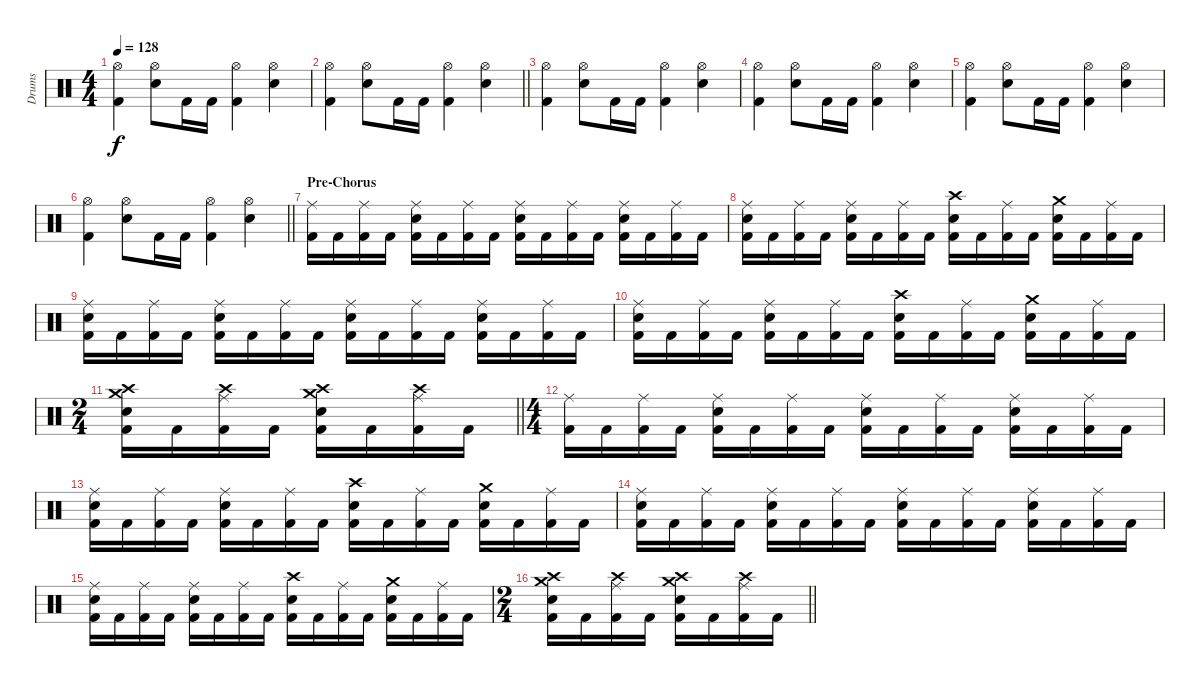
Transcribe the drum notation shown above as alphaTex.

\track ("Drums" "Drums") {instrument percussion}
\staff {score}
\articulation defaults
\ts (4 4)
\tempo 128
\clef neutral
\ks c
("Hi-Hat (open)" "Kick (hit) 2").4{dy f} ("Hi-Hat (open)" "Snare (hit) 2").8 "Kick (hit) 2".16 "Kick (hit) 2".16 ("Hi-Hat (open)" "Kick (hit) 2").4 ("Hi-Hat (open)" "Snare (hit) 2").4 |
\barLineRight lightlight
("Hi-Hat (open)" "Kick (hit) 2").4 ("Hi-Hat (open)" "Snare (hit) 2").8 "Kick (hit) 2".16 "Kick (hit) 2".16 ("Hi-Hat (open)" "Kick (hit) 2").4 ("Hi-Hat (open)" "Snare (hit) 2").4 |
("Hi-Hat (open)" "Kick (hit) 2").4 ("Hi-Hat (open)" "Snare (hit) 2").8 "Kick (hit) 2".16 "Kick (hit) 2".16 ("Hi-Hat (open)" "Kick (hit) 2").4 ("Hi-Hat (open)" "Snare (hit) 2").4 |
("Hi-Hat (open)" "Kick (hit) 2").4 ("Hi-Hat (open)" "Snare (hit) 2").8 "Kick (hit) 2".16 "Kick (hit) 2".16 ("Hi-Hat (open)" "Kick (hit) 2").4 ("Hi-Hat (open)" "Snare (hit) 2").4 |
("Hi-Hat (open)" "Kick (hit) 2").4 ("Hi-Hat (open)" "Snare (hit) 2").8 "Kick (hit) 2".16 "Kick (hit) 2".16 ("Hi-Hat (open)" "Kick (hit) 2").4 ("Hi-Hat (open)" "Snare (hit) 2").4 |
\barLineRight lightlight
("Hi-Hat (open)" "Kick (hit) 2").4 ("Hi-Hat (open)" "Snare (hit) 2").8 "Kick (hit) 2".16 "Kick (hit) 2".16 ("Hi-Hat (open)" "Kick (hit) 2").4 ("Hi-Hat (open)" "Snare (hit) 2").4 |
\section ("" "Pre-Chorus")
("Ride (middle)" "Kick (hit) 2").16 "Kick (hit) 2".16 ("Ride (middle)" "Kick (hit) 2").16 "Kick (hit) 2".16 ("Ride (middle)" "Snare (hit) 2" "Kick (hit) 2").16 "Kick (hit) 2".16 ("Ride (middle)" "Kick (hit) 2").16 "Kick (hit) 2".16 ("Ride (middle)" "Snare (hit) 2" "Kick (hit) 2").16 "Kick (hit) 2".16 ("Ride (middle)" "Kick (hit) 2").16 "Kick (hit) 2".16 ("Ride (middle)" "Snare (hit) 2" "Kick (hit) 2").16 "Kick (hit) 2".16 ("Ride (middle)" "Kick (hit) 2").16 "Kick (hit) 2".16 |
("Ride (middle)" "Snare (hit) 2" "Kick (hit) 2").16 "Kick (hit) 2".16 ("Ride (middle)" "Kick (hit) 2").16 "Kick (hit) 2".16 ("Ride (middle)" "Snare (hit) 2" "Kick (hit) 2").16 "Kick (hit) 2".16 ("Ride (middle)" "Kick (hit) 2").16 "Kick (hit) 2".16 ("Crash high (hit)" "Snare (hit) 2" "Kick (hit) 2").16 "Kick (hit) 2".16 ("Ride (middle)" "Kick (hit) 2").16 "Kick (hit) 2".16 ("Crash medium (hit)" "Snare (hit) 2" "Kick (hit) 2").16 "Kick (hit) 2".16 ("Ride (middle)" "Kick (hit) 2").16 "Kick (hit) 2".16 |
("Ride (middle)" "Snare (hit) 2" "Kick (hit) 2").16 "Kick (hit) 2".16 ("Ride (middle)" "Kick (hit) 2").16 "Kick (hit) 2".16 ("Ride (middle)" "Snare (hit) 2" "Kick (hit) 2").16 "Kick (hit) 2".16 ("Ride (middle)" "Kick (hit) 2").16 "Kick (hit) 2".16 ("Ride (middle)" "Snare (hit) 2" "Kick (hit) 2").16 "Kick (hit) 2".16 ("Ride (middle)" "Kick (hit) 2").16 "Kick (hit) 2".16 ("Ride (middle)" "Snare (hit) 2" "Kick (hit) 2").16 "Kick (hit) 2".16 ("Ride (middle)" "Kick (hit) 2").16 "Kick (hit) 2".16 |
("Ride (middle)" "Snare (hit) 2" "Kick (hit) 2").16 "Kick (hit) 2".16 ("Ride (middle)" "Kick (hit) 2").16 "Kick (hit) 2".16 ("Ride (middle)" "Snare (hit) 2" "Kick (hit) 2").16 "Kick (hit) 2".16 ("Ride (middle)" "Kick (hit) 2").16 "Kick (hit) 2".16 ("Crash high (hit)" "Snare (hit) 2" "Kick (hit) 2").16 "Kick (hit) 2".16 ("Ride (middle)" "Kick (hit) 2").16 "Kick (hit) 2".16 ("Crash medium (hit)" "Snare (hit) 2" "Kick (hit) 2").16 "Kick (hit) 2".16 ("Ride (middle)" "Kick (hit) 2").16 "Kick (hit) 2".16 |
\ts (2 4)
\barLineRight lightlight
("Crash high (hit)" "Crash medium (hit)" "Snare (hit) 2" "Kick (hit) 2").16 "Kick (hit) 2".16 ("Ride (middle)" "Crash high (hit)" "Kick (hit) 2").16 "Kick (hit) 2".16 ("Crash medium (hit)" "Crash high (hit)" "Snare (hit) 2" "Kick (hit) 2").16 "Kick (hit) 2".16 ("Ride (middle)" "Crash high (hit)" "Kick (hit) 2").16 "Kick (hit) 2".16 |
\ts (4 4)
("Ride (middle)" "Kick (hit) 2").16 "Kick (hit) 2".16 ("Ride (middle)" "Kick (hit) 2").16 "Kick (hit) 2".16 ("Ride (middle)" "Snare (hit) 2" "Kick (hit) 2").16 "Kick (hit) 2".16 ("Ride (middle)" "Kick (hit) 2").16 "Kick (hit) 2".16 ("Ride (middle)" "Snare (hit) 2" "Kick (hit) 2").16 "Kick (hit) 2".16 ("Ride (middle)" "Kick (hit) 2").16 "Kick (hit) 2".16 ("Ride (middle)" "Snare (hit) 2" "Kick (hit) 2").16 "Kick (hit) 2".16 ("Ride (middle)" "Kick (hit) 2").16 "Kick (hit) 2".16 |
("Ride (middle)" "Snare (hit) 2" "Kick (hit) 2").16 "Kick (hit) 2".16 ("Ride (middle)" "Kick (hit) 2").16 "Kick (hit) 2".16 ("Ride (middle)" "Snare (hit) 2" "Kick (hit) 2").16 "Kick (hit) 2".16 ("Ride (middle)" "Kick (hit) 2").16 "Kick (hit) 2".16 ("Crash high (hit)" "Snare (hit) 2" "Kick (hit) 2").16 "Kick (hit) 2".16 ("Ride (middle)" "Kick (hit) 2").16 "Kick (hit) 2".16 ("Crash medium (hit)" "Snare (hit) 2" "Kick (hit) 2").16 "Kick (hit) 2".16 ("Ride (middle)" "Kick (hit) 2").16 "Kick (hit) 2".16 |
("Ride (middle)" "Snare (hit) 2" "Kick (hit) 2").16 "Kick (hit) 2".16 ("Ride (middle)" "Kick (hit) 2").16 "Kick (hit) 2".16 ("Ride (middle)" "Snare (hit) 2" "Kick (hit) 2").16 "Kick (hit) 2".16 ("Ride (middle)" "Kick (hit) 2").16 "Kick (hit) 2".16 ("Ride (middle)" "Snare (hit) 2" "Kick (hit) 2").16 "Kick (hit) 2".16 ("Ride (middle)" "Kick (hit) 2").16 "Kick (hit) 2".16 ("Ride (middle)" "Snare (hit) 2" "Kick (hit) 2").16 "Kick (hit) 2".16 ("Ride (middle)" "Kick (hit) 2").16 "Kick (hit) 2".16 |
("Ride (middle)" "Snare (hit) 2" "Kick (hit) 2").16 "Kick (hit) 2".16 ("Ride (middle)" "Kick (hit) 2").16 "Kick (hit) 2".16 ("Ride (middle)" "Snare (hit) 2" "Kick (hit) 2").16 "Kick (hit) 2".16 ("Ride (middle)" "Kick (hit) 2").16 "Kick (hit) 2".16 ("Crash high (hit)" "Snare (hit) 2" "Kick (hit) 2").16 "Kick (hit) 2".16 ("Ride (middle)" "Kick (hit) 2").16 "Kick (hit) 2".16 ("Crash medium (hit)" "Snare (hit) 2" "Kick (hit) 2").16 "Kick (hit) 2".16 ("Ride (middle)" "Kick (hit) 2").16 "Kick (hit) 2".16 |
\ts (2 4)
\barLineRight lightlight
("Crash high (hit)" "Crash medium (hit)" "Snare (hit) 2" "Kick (hit) 2").16 "Kick (hit) 2".16 ("Ride (middle)" "Crash high (hit)" "Kick (hit) 2").16 "Kick (hit) 2".16 ("Crash medium (hit)" "Crash high (hit)" "Snare (hit) 2" "Kick (hit) 2").16 "Kick (hit) 2".16 ("Ride (middle)" "Crash high (hit)" "Kick (hit) 2").16 "Kick (hit) 2".16
